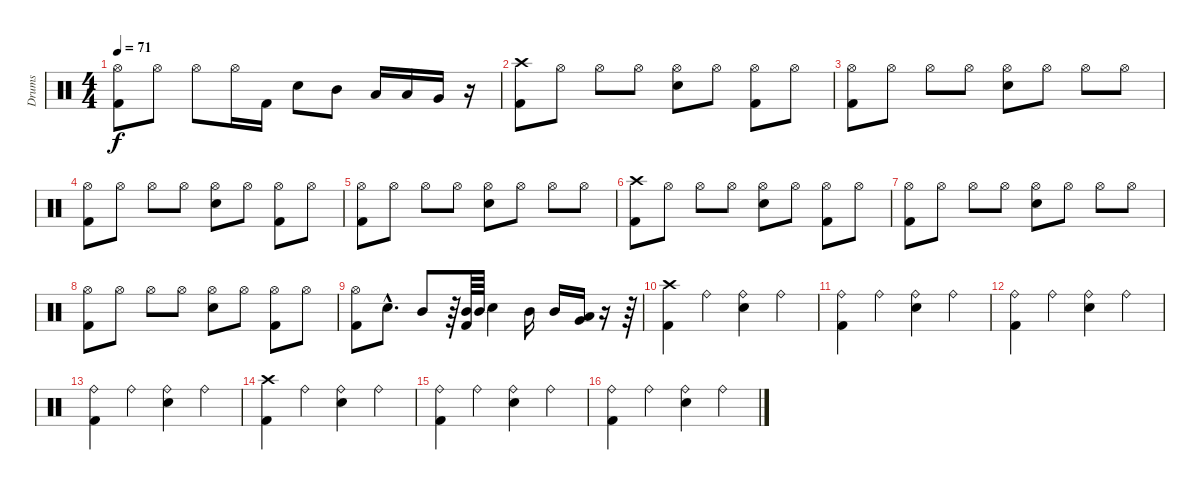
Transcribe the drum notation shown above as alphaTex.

\track ("Drums" "Drums") {instrument percussion}
\staff {score}
\articulation defaults
\ts (4 4)
\tempo 71
\clef neutral
\ks c
("Hi-Hat (open)" "Kick (hit) 2").8{dy f} "Hi-Hat (open)".8 "Hi-Hat (open)".8 "Hi-Hat (open)".16 "Kick (hit) 2".16 "Snare (hit) 2".8 "Mid Tom (hit)".8 "Low Tom (hit)".16 "Low Tom (hit)".16 "Very Low Tom (hit)".16 r.16 |
("Crash high (hit)" "Kick (hit) 2").8 "Hi-Hat (open)".8 "Hi-Hat (open)".8 "Hi-Hat (open)".8 ("Hi-Hat (open)" "Snare (hit) 2").8 "Hi-Hat (open)".8 ("Hi-Hat (open)" "Kick (hit) 2").8 "Hi-Hat (open)".8 |
("Hi-Hat (open)" "Kick (hit) 2").8 "Hi-Hat (open)".8 "Hi-Hat (open)".8 "Hi-Hat (open)".8 ("Hi-Hat (open)" "Snare (hit) 2").8 "Hi-Hat (open)".8 "Hi-Hat (open)".8 "Hi-Hat (open)".8 |
("Hi-Hat (open)" "Kick (hit) 2").8 "Hi-Hat (open)".8 "Hi-Hat (open)".8 "Hi-Hat (open)".8 ("Hi-Hat (open)" "Snare (hit) 2").8 "Hi-Hat (open)".8 ("Hi-Hat (open)" "Kick (hit) 2").8 "Hi-Hat (open)".8 |
("Hi-Hat (open)" "Kick (hit) 2").8 "Hi-Hat (open)".8 "Hi-Hat (open)".8 "Hi-Hat (open)".8 ("Hi-Hat (open)" "Snare (hit) 2").8 "Hi-Hat (open)".8 "Hi-Hat (open)".8 "Hi-Hat (open)".8 |
("Crash high (hit)" "Kick (hit) 2").8 "Hi-Hat (open)".8 "Hi-Hat (open)".8 "Hi-Hat (open)".8 ("Hi-Hat (open)" "Snare (hit) 2").8 "Hi-Hat (open)".8 ("Hi-Hat (open)" "Kick (hit) 2").8 "Hi-Hat (open)".8 |
("Hi-Hat (open)" "Kick (hit) 2").8 "Hi-Hat (open)".8 "Hi-Hat (open)".8 "Hi-Hat (open)".8 ("Hi-Hat (open)" "Snare (hit) 2").8 "Hi-Hat (open)".8 "Hi-Hat (open)".8 "Hi-Hat (open)".8 |
("Hi-Hat (open)" "Kick (hit) 2").8 "Hi-Hat (open)".8 "Hi-Hat (open)".8 "Hi-Hat (open)".8 ("Hi-Hat (open)" "Snare (hit) 2").8 "Hi-Hat (open)".8 ("Hi-Hat (open)" "Kick (hit) 2").8 "Hi-Hat (open)".8 |
("Hi-Hat (open)" "Kick (hit) 2").8 "Snare (hit) 2"{hac}.8{d} "Mid Tom (hit)".8 r.64 ("Mid Tom (hit)" "Kick (hit) 2").64 "Mid Tom (hit)".64 "Snare (hit) 2".4 "Mid Tom (hit)".16 "Mid Tom (hit)".16 ("Very Low Tom (hit)" "Low Tom (hit)").16 r.16 r.64 |
("Crash high (hit)" "Kick (hit) 2").4 "Ride (bell)".4 ("Ride (bell)" "Snare (hit) 2").4 "Ride (bell)".4 |
("Ride (bell)" "Kick (hit) 2").4 "Ride (bell)".4 ("Ride (bell)" "Snare (hit) 2").4 "Ride (bell)".4 |
("Ride (bell)" "Kick (hit) 2").4 "Ride (bell)".4 ("Ride (bell)" "Snare (hit) 2").4 "Ride (bell)".4 |
("Ride (bell)" "Kick (hit) 2").4 "Ride (bell)".4 ("Ride (bell)" "Snare (hit) 2").4 "Ride (bell)".4 |
("Crash high (hit)" "Kick (hit) 2").4 "Ride (bell)".4 ("Ride (bell)" "Snare (hit) 2").4 "Ride (bell)".4 |
("Ride (bell)" "Kick (hit) 2").4 "Ride (bell)".4 ("Ride (bell)" "Snare (hit) 2").4 "Ride (bell)".4 |
("Ride (bell)" "Kick (hit) 2").4 "Ride (bell)".4 ("Ride (bell)" "Snare (hit) 2").4 "Ride (bell)".4
